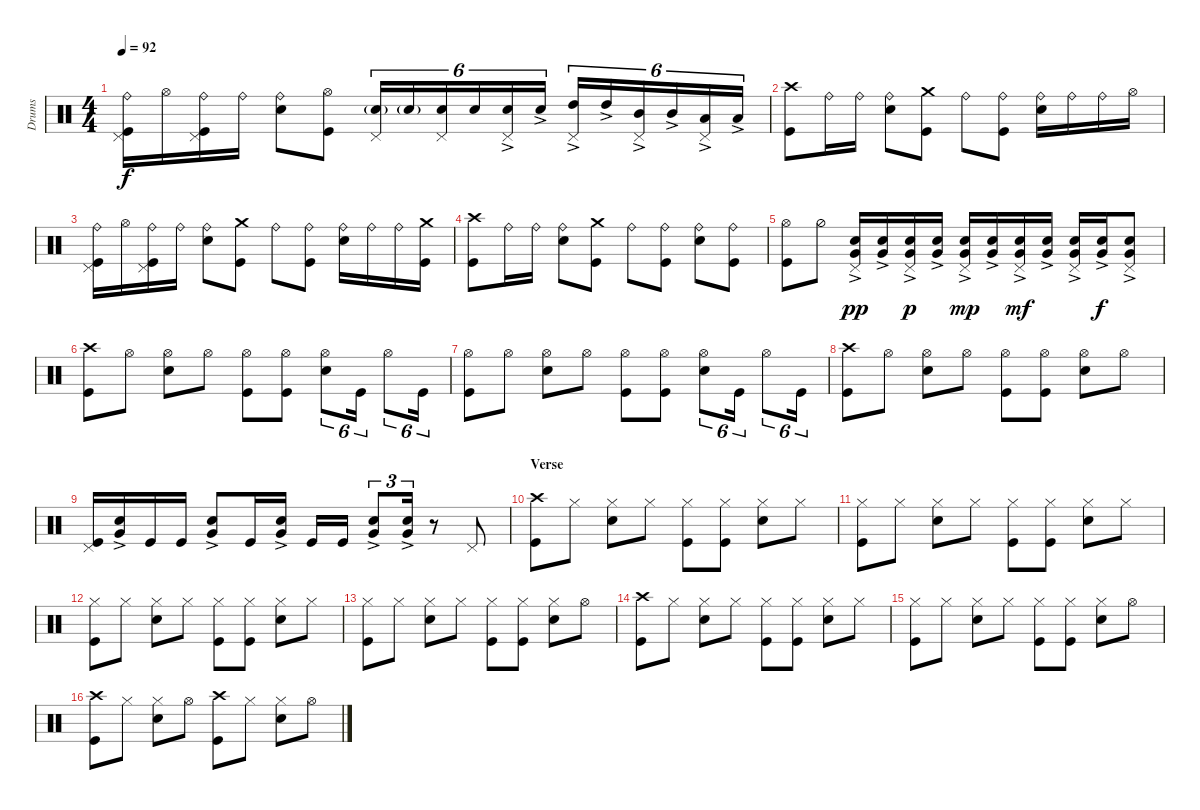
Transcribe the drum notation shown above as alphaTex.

\track ("Drums" "Drums") {instrument percussion}
\staff {score}
\articulation defaults
\ts (4 4)
\tempo 92
\clef neutral
\ks c
("Ride (bell)" "Pedal Hi-Hat (hit)" "Kick (hit)").16{dy f} "Hi-Hat (open)".16 ("Ride (bell)" "Pedal Hi-Hat (hit)" "Kick (hit)").16 "Ride (bell)".16 ("Snare (hit) 2" "Ride (bell)").8 ("Kick (hit)" "Hi-Hat (open)").8 ("Snare (hit) 2"{g} "Pedal Hi-Hat (hit)").16{tu (6 4)} "Snare (hit) 2"{g}.16{tu (6 4)} ("Snare (hit) 2" "Pedal Hi-Hat (hit)").16{tu (6 4)} "Snare (hit) 2".16{tu (6 4)} ("Snare (hit) 2"{ac} "Pedal Hi-Hat (hit)").16{tu (6 4)} "Snare (hit) 2"{ac}.16{tu (6 4)} ("High Tom (hit)"{ac} "Pedal Hi-Hat (hit)").16{tu (6 4)} "High Tom (hit)"{ac}.16{tu (6 4)} ("Mid Tom (hit)"{ac} "Pedal Hi-Hat (hit)").16{tu (6 4)} "Mid Tom (hit)"{ac}.16{tu (6 4)} ("Low Tom (hit)"{ac} "Pedal Hi-Hat (hit)").16{tu (6 4)} "Low Tom (hit)"{ac}.16{tu (6 4)} |
("Kick (hit)" "Crash high (hit)").8 "Ride (bell)".16 "Ride (bell)".16 ("Ride (bell)" "Snare (hit) 2").8 ("Crash medium (hit)" "Kick (hit)").8 "Ride (bell)".8 ("Ride (bell)" "Kick (hit)").8 ("Ride (bell)" "Snare (hit) 2").16 "Ride (bell)".16 "Ride (bell)".16 "Hi-Hat (open)".16 |
("Ride (bell)" "Pedal Hi-Hat (hit)" "Kick (hit)").16 "Hi-Hat (open)".16 ("Ride (bell)" "Pedal Hi-Hat (hit)" "Kick (hit)").16 "Ride (bell)".16 ("Snare (hit) 2" "Ride (bell)").8 ("Crash medium (hit)" "Kick (hit)").8 "Ride (bell)".8 ("Ride (bell)" "Kick (hit)").8 ("Snare (hit) 2" "Ride (bell)").16 "Ride (bell)".16 "Ride (bell)".16 ("Crash medium (hit)" "Kick (hit)").16 |
("Kick (hit)" "Crash high (hit)").8 "Ride (bell)".16 "Ride (bell)".16 ("Ride (bell)" "Snare (hit) 2").8 ("Crash medium (hit)" "Kick (hit)").8 "Ride (bell)".8 ("Ride (bell)" "Kick (hit)").8 ("Ride (bell)" "Snare (hit) 2").8 ("Ride (bell)" "Kick (hit)").8 |
("Kick (hit)" "Hi-Hat (open)").8 "Hi-Hat (half)".8 ("Snare (hit) 2" "Very Low Tom (hit)"{ac} "Pedal Hi-Hat (hit)").16{dy pp} ("Snare (hit) 2" "Very Low Tom (hit)"{ac}).16 ("Snare (hit) 2" "Very Low Tom (hit)"{ac} "Pedal Hi-Hat (hit)").16{dy p} ("Snare (hit) 2" "Very Low Tom (hit)"{ac}).16 ("Snare (hit) 2" "Very Low Tom (hit)"{ac} "Pedal Hi-Hat (hit)").16{dy mp} ("Snare (hit) 2" "Very Low Tom (hit)"{ac}).16 ("Snare (hit) 2" "Very Low Tom (hit)"{ac} "Pedal Hi-Hat (hit)").16{dy mf} ("Snare (hit) 2" "Very Low Tom (hit)"{ac}).16 ("Snare (hit) 2" "Very Low Tom (hit)"{ac} "Pedal Hi-Hat (hit)").16 ("Snare (hit) 2" "Very Low Tom (hit)"{ac}).16{dy f} ("Snare (hit) 2" "Very Low Tom (hit)"{ac} "Pedal Hi-Hat (hit)").8 |
("Kick (hit)" "Crash high (hit)").8 "Hi-Hat (open)".8 ("Hi-Hat (open)" "Snare (hit) 2").8 "Hi-Hat (open)".8 ("Hi-Hat (open)" "Kick (hit)").8 ("Hi-Hat (open)" "Kick (hit)").8 ("Hi-Hat (open)" "Snare (hit) 2").8{tu (6 4)} "Kick (hit)".16{tu (6 4)} "Hi-Hat (open)".8{tu (6 4)} "Kick (hit)".16{tu (6 4)} |
("Kick (hit)" "Hi-Hat (open)").8 "Hi-Hat (open)".8 ("Hi-Hat (open)" "Snare (hit) 2").8 "Hi-Hat (open)".8 ("Hi-Hat (open)" "Kick (hit)").8 ("Hi-Hat (open)" "Kick (hit)").8 ("Hi-Hat (open)" "Snare (hit) 2").8{tu (6 4)} "Kick (hit)".16{tu (6 4)} "Hi-Hat (open)".8{tu (6 4)} "Kick (hit)".16{tu (6 4)} |
("Kick (hit)" "Crash high (hit)").8 "Hi-Hat (open)".8 ("Hi-Hat (open)" "Snare (hit) 2").8 "Hi-Hat (open)".8 ("Hi-Hat (open)" "Kick (hit)").8 ("Hi-Hat (open)" "Kick (hit)").8 ("Hi-Hat (open)" "Snare (hit) 2").8 "Hi-Hat (open)".8 |
("Kick (hit)" "Pedal Hi-Hat (hit)").16 ("Very Low Tom (hit)"{ac} "Snare (hit) 2").16 "Kick (hit)".16 "Kick (hit)".16 ("Very Low Tom (hit)"{ac} "Snare (hit) 2").8 "Kick (hit)".16 ("Very Low Tom (hit)"{ac} "Snare (hit) 2").16 "Kick (hit)".16 "Kick (hit)".16 ("Very Low Tom (hit)"{ac} "Snare (hit) 2").8{tu (3 2)} ("Very Low Tom (hit)"{ac} "Snare (hit) 2").16{tu (3 2)} r.8 "Pedal Hi-Hat (hit)".8 |
\section ("" "Verse")
("Kick (hit)" "Crash high (hit)").8 "Hi-Hat (closed)".8 ("Hi-Hat (closed)" "Snare (hit) 2").8 "Hi-Hat (closed)".8 ("Kick (hit)" "Hi-Hat (closed)").8 ("Hi-Hat (closed)" "Kick (hit)").8 ("Hi-Hat (closed)" "Snare (hit) 2").8 "Hi-Hat (closed)".8 |
("Kick (hit)" "Hi-Hat (closed)").8 "Hi-Hat (closed)".8 ("Hi-Hat (closed)" "Snare (hit) 2").8 "Hi-Hat (closed)".8 ("Kick (hit)" "Hi-Hat (closed)").8 ("Hi-Hat (closed)" "Kick (hit)").8 ("Hi-Hat (closed)" "Snare (hit) 2").8 "Hi-Hat (closed)".8 |
("Kick (hit)" "Hi-Hat (closed)").8 "Hi-Hat (closed)".8 ("Hi-Hat (closed)" "Snare (hit) 2").8 "Hi-Hat (closed)".8 ("Kick (hit)" "Hi-Hat (closed)").8 ("Hi-Hat (closed)" "Kick (hit)").8 ("Hi-Hat (closed)" "Snare (hit) 2").8 "Hi-Hat (closed)".8 |
("Kick (hit)" "Hi-Hat (closed)").8 "Hi-Hat (closed)".8 ("Hi-Hat (closed)" "Snare (hit) 2").8 "Hi-Hat (closed)".8 ("Kick (hit)" "Hi-Hat (closed)").8 ("Hi-Hat (closed)" "Kick (hit)").8 ("Hi-Hat (closed)" "Snare (hit) 2").8 "Hi-Hat (open)".8 |
("Kick (hit)" "Crash high (hit)").8 "Hi-Hat (closed)".8 ("Hi-Hat (closed)" "Snare (hit) 2").8 "Hi-Hat (closed)".8 ("Kick (hit)" "Hi-Hat (closed)").8 ("Hi-Hat (closed)" "Kick (hit)").8 ("Hi-Hat (closed)" "Snare (hit) 2").8 "Hi-Hat (closed)".8 |
("Kick (hit)" "Hi-Hat (closed)").8 "Hi-Hat (closed)".8 ("Hi-Hat (closed)" "Snare (hit) 2").8 "Hi-Hat (closed)".8 ("Kick (hit)" "Hi-Hat (closed)").8 ("Hi-Hat (closed)" "Kick (hit)").8 ("Hi-Hat (closed)" "Snare (hit) 2").8 "Hi-Hat (open)".8 |
("Kick (hit)" "Crash high (hit)").8 "Hi-Hat (closed)".8 ("Hi-Hat (closed)" "Snare (hit) 2").8 "Hi-Hat (open)".8 ("Kick (hit)" "Crash high (hit)").8 "Hi-Hat (closed)".8 ("Hi-Hat (closed)" "Snare (hit) 2").8 "Hi-Hat (open)".8
